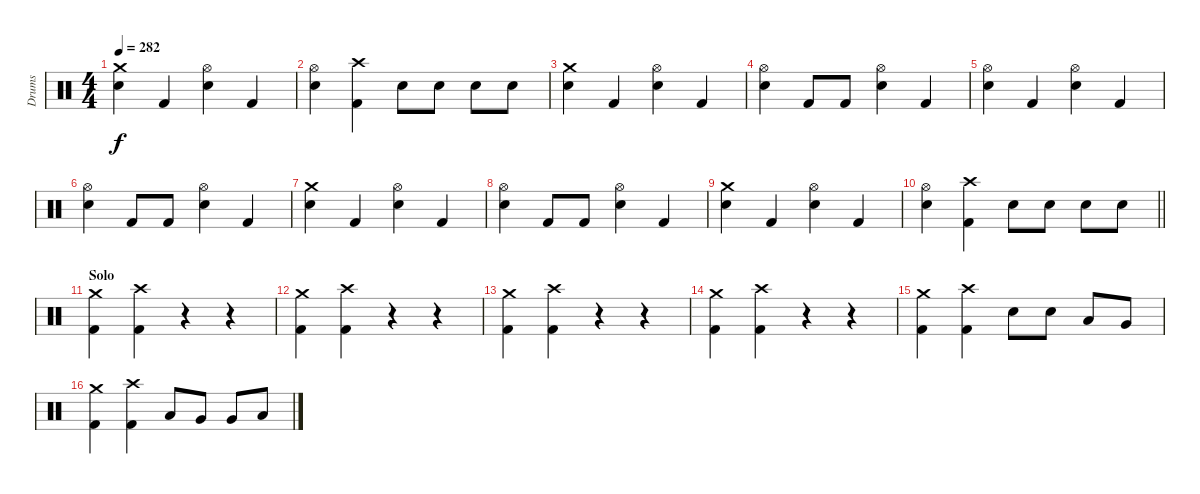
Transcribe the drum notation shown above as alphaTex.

\track ("Drums" "Drums") {instrument percussion}
\staff {score}
\articulation defaults
\ts (4 4)
\tempo 282
\clef neutral
\ks c
("Crash medium (hit)" "Electric Snare (hit)").4{dy f} "Kick (hit) 2".4 ("Hi-Hat (open)" "Electric Snare (hit)").4 "Kick (hit) 2".4 |
("Hi-Hat (open)" "Electric Snare (hit)").4 ("Crash high (hit)" "Kick (hit) 2").4 "Electric Snare (hit)".8 "Electric Snare (hit)".8 "Electric Snare (hit)".8 "Electric Snare (hit)".8 |
("Crash medium (hit)" "Electric Snare (hit)").4 "Kick (hit) 2".4 ("Hi-Hat (open)" "Electric Snare (hit)").4 "Kick (hit) 2".4 |
("Hi-Hat (open)" "Electric Snare (hit)").4 "Kick (hit) 2".8 "Kick (hit) 2".8 ("Hi-Hat (open)" "Electric Snare (hit)").4 "Kick (hit) 2".4 |
("Hi-Hat (open)" "Electric Snare (hit)").4 "Kick (hit) 2".4 ("Hi-Hat (open)" "Electric Snare (hit)").4 "Kick (hit) 2".4 |
("Hi-Hat (open)" "Electric Snare (hit)").4 "Kick (hit) 2".8 "Kick (hit) 2".8 ("Hi-Hat (open)" "Electric Snare (hit)").4 "Kick (hit) 2".4 |
("Crash medium (hit)" "Electric Snare (hit)").4 "Kick (hit) 2".4 ("Hi-Hat (open)" "Electric Snare (hit)").4 "Kick (hit) 2".4 |
("Hi-Hat (open)" "Electric Snare (hit)").4 "Kick (hit) 2".8 "Kick (hit) 2".8 ("Hi-Hat (open)" "Electric Snare (hit)").4 "Kick (hit) 2".4 |
("Crash medium (hit)" "Electric Snare (hit)").4 "Kick (hit) 2".4 ("Hi-Hat (open)" "Electric Snare (hit)").4 "Kick (hit) 2".4 |
\barLineRight lightlight
("Hi-Hat (open)" "Electric Snare (hit)").4 ("Crash high (hit)" "Kick (hit) 2").4 "Electric Snare (hit)".8 "Electric Snare (hit)".8 "Electric Snare (hit)".8 "Electric Snare (hit)".8 |
\section ("" "Solo")
("Crash medium (hit)" "Kick (hit) 2").4 ("Crash high (hit)" "Kick (hit) 2").4 r.4 r.4 |
("Crash medium (hit)" "Kick (hit) 2").4 ("Crash high (hit)" "Kick (hit) 2").4 r.4 r.4 |
("Crash medium (hit)" "Kick (hit) 2").4 ("Crash high (hit)" "Kick (hit) 2").4 r.4 r.4 |
("Crash medium (hit)" "Kick (hit) 2").4 ("Crash high (hit)" "Kick (hit) 2").4 r.4 r.4 |
("Crash medium (hit)" "Kick (hit) 2").4 ("Crash high (hit)" "Kick (hit) 2").4 "Electric Snare (hit)".8 "Electric Snare (hit)".8 "Low Tom (hit)".8 "Very Low Tom (hit)".8 |
("Crash medium (hit)" "Kick (hit) 2").4 ("Crash high (hit)" "Kick (hit) 2").4 "Low Tom (hit)".8 "Very Low Tom (hit)".8 "Very Low Tom (hit)".8 "Low Floor Tom (hit)".8
